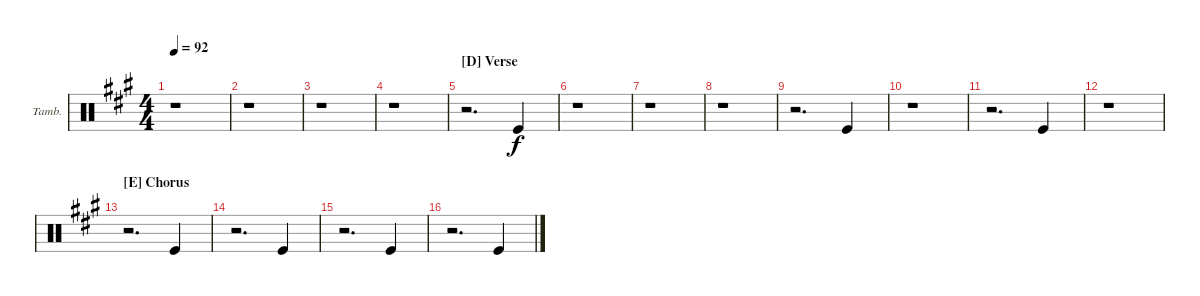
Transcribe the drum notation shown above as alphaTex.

\defaultSystemsLayout 4
\bracketExtendMode groupsimilarinstruments
\firstSystemTrackNameOrientation horizontal
\otherSystemsTrackNameOrientation horizontal
\track ("Tambourine" "Tamb.") {instrument percussion}
\staff {score}
\articulation defaults
\ts (4 4)
\tempo 92
\clef neutral
\ks a
r.1{dy f} |
r.1 |
r.1 |
r.1 |
\section ("D" "Verse")
r.2{d} "Kick (hit)".4 |
r.1 |
r.1 |
r.1 |
r.2{d} "Kick (hit)".4 |
r.1 |
r.2{d} "Kick (hit)".4 |
r.1 |
\section ("E" "Chorus")
r.2{d} "Kick (hit)".4 |
r.2{d} "Kick (hit)".4 |
r.2{d} "Kick (hit)".4 |
r.2{d} "Kick (hit)".4
